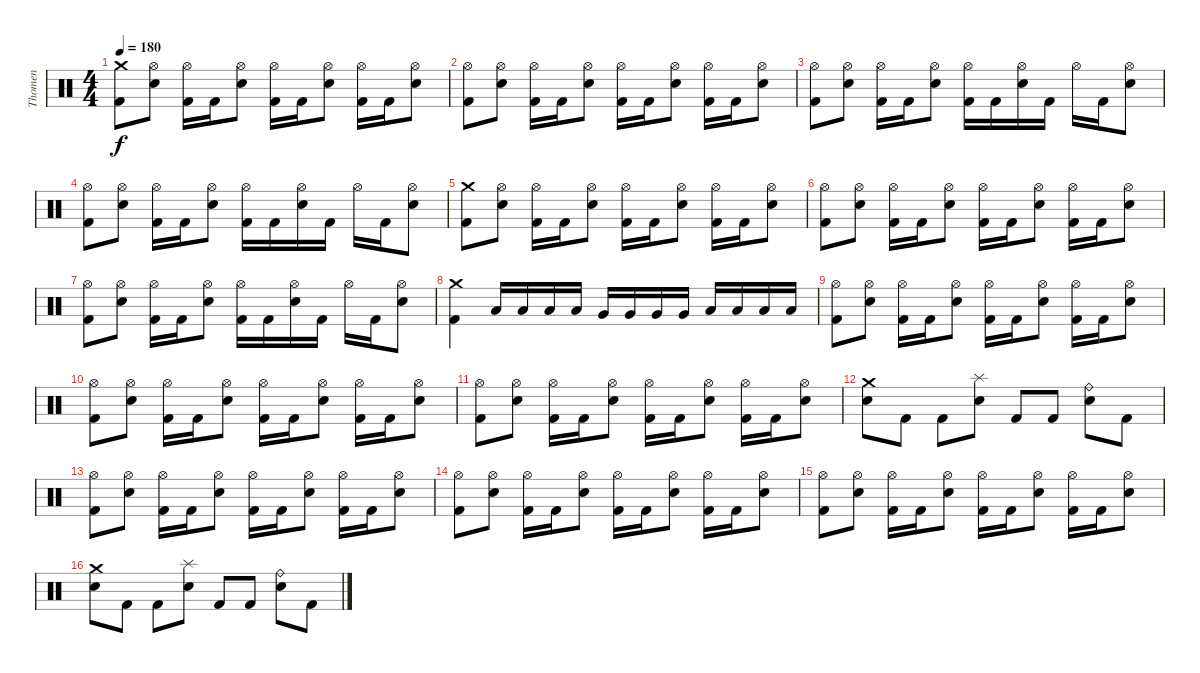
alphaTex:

\track ("Thomen" "Thomen") {instrument percussion}
\staff {score}
\articulation defaults
\ts (4 4)
\tempo 180
\clef neutral
\ks c
("Crash medium (hit)" "Kick (hit) 2").8{dy f} ("Hi-Hat (open)" "Electric Snare (hit)").8 ("Hi-Hat (open)" "Kick (hit) 2").16 "Kick (hit) 2".16 ("Hi-Hat (open)" "Electric Snare (hit)").8 ("Hi-Hat (open)" "Kick (hit) 2").16 "Kick (hit) 2".16 ("Hi-Hat (open)" "Electric Snare (hit)").8 ("Hi-Hat (open)" "Kick (hit) 2").16 "Kick (hit) 2".16 ("Hi-Hat (open)" "Electric Snare (hit)").8 |
("Hi-Hat (open)" "Kick (hit) 2").8 ("Hi-Hat (open)" "Electric Snare (hit)").8 ("Hi-Hat (open)" "Kick (hit) 2").16 "Kick (hit) 2".16 ("Hi-Hat (open)" "Electric Snare (hit)").8 ("Hi-Hat (open)" "Kick (hit) 2").16 "Kick (hit) 2".16 ("Hi-Hat (open)" "Electric Snare (hit)").8 ("Hi-Hat (open)" "Kick (hit) 2").16 "Kick (hit) 2".16 ("Hi-Hat (open)" "Electric Snare (hit)").8 |
("Hi-Hat (open)" "Kick (hit) 2").8 ("Hi-Hat (open)" "Electric Snare (hit)").8 ("Hi-Hat (open)" "Kick (hit) 2").16 "Kick (hit) 2".16 ("Hi-Hat (open)" "Electric Snare (hit)").8 ("Hi-Hat (open)" "Kick (hit) 2").16 "Kick (hit) 2".16 ("Hi-Hat (open)" "Electric Snare (hit)").16 "Kick (hit) 2".16 "Hi-Hat (open)".16 "Kick (hit) 2".16 ("Hi-Hat (open)" "Electric Snare (hit)").8 |
("Hi-Hat (open)" "Kick (hit) 2").8 ("Hi-Hat (open)" "Electric Snare (hit)").8 ("Hi-Hat (open)" "Kick (hit) 2").16 "Kick (hit) 2".16 ("Hi-Hat (open)" "Electric Snare (hit)").8 ("Hi-Hat (open)" "Kick (hit) 2").16 "Kick (hit) 2".16 ("Hi-Hat (open)" "Electric Snare (hit)").16 "Kick (hit) 2".16 "Hi-Hat (open)".16 "Kick (hit) 2".16 ("Hi-Hat (open)" "Electric Snare (hit)").8 |
("Crash medium (hit)" "Kick (hit) 2").8 ("Hi-Hat (open)" "Electric Snare (hit)").8 ("Hi-Hat (open)" "Kick (hit) 2").16 "Kick (hit) 2".16 ("Hi-Hat (open)" "Electric Snare (hit)").8 ("Hi-Hat (open)" "Kick (hit) 2").16 "Kick (hit) 2".16 ("Hi-Hat (open)" "Electric Snare (hit)").8 ("Hi-Hat (open)" "Kick (hit) 2").16 "Kick (hit) 2".16 ("Hi-Hat (open)" "Electric Snare (hit)").8 |
("Hi-Hat (open)" "Kick (hit) 2").8 ("Hi-Hat (open)" "Electric Snare (hit)").8 ("Hi-Hat (open)" "Kick (hit) 2").16 "Kick (hit) 2".16 ("Hi-Hat (open)" "Electric Snare (hit)").8 ("Hi-Hat (open)" "Kick (hit) 2").16 "Kick (hit) 2".16 ("Hi-Hat (open)" "Electric Snare (hit)").8 ("Hi-Hat (open)" "Kick (hit) 2").16 "Kick (hit) 2".16 ("Hi-Hat (open)" "Electric Snare (hit)").8 |
("Hi-Hat (open)" "Kick (hit) 2").8 ("Hi-Hat (open)" "Electric Snare (hit)").8 ("Hi-Hat (open)" "Kick (hit) 2").16 "Kick (hit) 2".16 ("Hi-Hat (open)" "Electric Snare (hit)").8 ("Hi-Hat (open)" "Kick (hit) 2").16 "Kick (hit) 2".16 ("Hi-Hat (open)" "Electric Snare (hit)").16 "Kick (hit) 2".16 "Hi-Hat (open)".16 "Kick (hit) 2".16 ("Hi-Hat (open)" "Electric Snare (hit)").8 |
("Crash medium (hit)" "Kick (hit) 2").4 "Low Tom (hit)".16 "Low Tom (hit)".16 "Low Tom (hit)".16 "Low Tom (hit)".16 "Very Low Tom (hit)".16 "Very Low Tom (hit)".16 "Very Low Tom (hit)".16 "Very Low Tom (hit)".16 "Low Floor Tom (hit)".16 "Low Floor Tom (hit)".16 "Low Floor Tom (hit)".16 "Low Floor Tom (hit)".16 |
("Hi-Hat (open)" "Kick (hit) 2").8 ("Hi-Hat (open)" "Electric Snare (hit)").8 ("Hi-Hat (open)" "Kick (hit) 2").16 "Kick (hit) 2".16 ("Hi-Hat (open)" "Electric Snare (hit)").8 ("Hi-Hat (open)" "Kick (hit) 2").16 "Kick (hit) 2".16 ("Hi-Hat (open)" "Electric Snare (hit)").8 ("Hi-Hat (open)" "Kick (hit) 2").16 "Kick (hit) 2".16 ("Hi-Hat (open)" "Electric Snare (hit)").8 |
("Hi-Hat (open)" "Kick (hit) 2").8 ("Hi-Hat (open)" "Electric Snare (hit)").8 ("Hi-Hat (open)" "Kick (hit) 2").16 "Kick (hit) 2".16 ("Hi-Hat (open)" "Electric Snare (hit)").8 ("Hi-Hat (open)" "Kick (hit) 2").16 "Kick (hit) 2".16 ("Hi-Hat (open)" "Electric Snare (hit)").8 ("Hi-Hat (open)" "Kick (hit) 2").16 "Kick (hit) 2".16 ("Hi-Hat (open)" "Electric Snare (hit)").8 |
("Hi-Hat (open)" "Kick (hit) 2").8 ("Hi-Hat (open)" "Electric Snare (hit)").8 ("Hi-Hat (open)" "Kick (hit) 2").16 "Kick (hit) 2".16 ("Hi-Hat (open)" "Electric Snare (hit)").8 ("Hi-Hat (open)" "Kick (hit) 2").16 "Kick (hit) 2".16 ("Hi-Hat (open)" "Electric Snare (hit)").8 ("Hi-Hat (open)" "Kick (hit) 2").16 "Kick (hit) 2".16 ("Hi-Hat (open)" "Electric Snare (hit)").8 |
("Crash medium (hit)" "Electric Snare (hit)").8 "Kick (hit) 2".8 "Kick (hit) 2".8 ("Splash (hit)" "Electric Snare (hit)").8 "Kick (hit) 2".8 "Kick (hit) 2".8 ("Ride (bell)" "Electric Snare (hit)").8 "Kick (hit) 2".8 |
("Hi-Hat (open)" "Kick (hit) 2").8 ("Hi-Hat (open)" "Electric Snare (hit)").8 ("Hi-Hat (open)" "Kick (hit) 2").16 "Kick (hit) 2".16 ("Hi-Hat (open)" "Electric Snare (hit)").8 ("Hi-Hat (open)" "Kick (hit) 2").16 "Kick (hit) 2".16 ("Hi-Hat (open)" "Electric Snare (hit)").8 ("Hi-Hat (open)" "Kick (hit) 2").16 "Kick (hit) 2".16 ("Hi-Hat (open)" "Electric Snare (hit)").8 |
("Hi-Hat (open)" "Kick (hit) 2").8 ("Hi-Hat (open)" "Electric Snare (hit)").8 ("Hi-Hat (open)" "Kick (hit) 2").16 "Kick (hit) 2".16 ("Hi-Hat (open)" "Electric Snare (hit)").8 ("Hi-Hat (open)" "Kick (hit) 2").16 "Kick (hit) 2".16 ("Hi-Hat (open)" "Electric Snare (hit)").8 ("Hi-Hat (open)" "Kick (hit) 2").16 "Kick (hit) 2".16 ("Hi-Hat (open)" "Electric Snare (hit)").8 |
("Hi-Hat (open)" "Kick (hit) 2").8 ("Hi-Hat (open)" "Electric Snare (hit)").8 ("Hi-Hat (open)" "Kick (hit) 2").16 "Kick (hit) 2".16 ("Hi-Hat (open)" "Electric Snare (hit)").8 ("Hi-Hat (open)" "Kick (hit) 2").16 "Kick (hit) 2".16 ("Hi-Hat (open)" "Electric Snare (hit)").8 ("Hi-Hat (open)" "Kick (hit) 2").16 "Kick (hit) 2".16 ("Hi-Hat (open)" "Electric Snare (hit)").8 |
("Crash medium (hit)" "Electric Snare (hit)").8 "Kick (hit) 2".8 "Kick (hit) 2".8 ("Splash (hit)" "Electric Snare (hit)").8 "Kick (hit) 2".8 "Kick (hit) 2".8 ("Ride (bell)" "Electric Snare (hit)").8 "Kick (hit) 2".8
